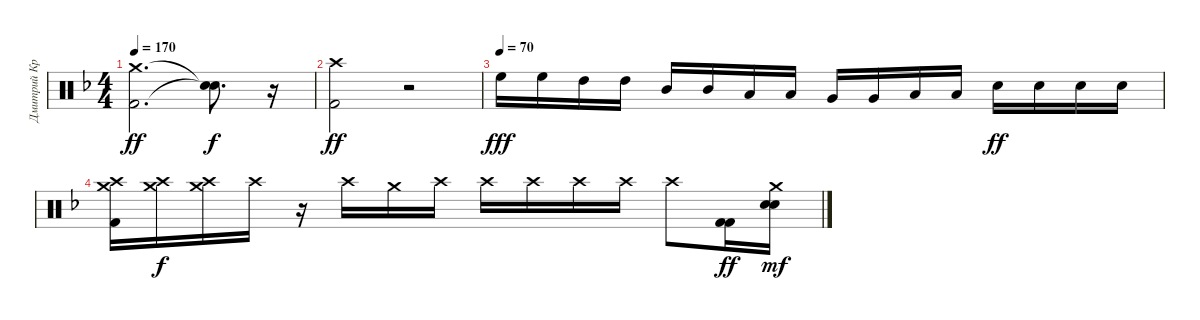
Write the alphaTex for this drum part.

\track ("Дмитрий Кривенков" "Дмитрий Кр") {instrument percussion}
\staff {score}
\articulation defaults
\ts (4 4)
\tempo 170
\clef neutral
\ks f
("Kick (hit) 2" "Crash medium (hit)").2{d dy ff} ("Snare (hit)"{t} "Snare (hit)"{t}).8{d dy f} r.16 |
("Kick (hit) 2" "Crash high (hit)").2{dy ff} r.2 |
\tempo (70)
"High Floor Tom (hit)".16{dy fff} "High Floor Tom (hit)".16 "High Tom (hit)".16 "High Tom (hit)".16 "Mid Tom (hit)".16 "Mid Tom (hit)".16 "Low Tom (hit)".16 "Low Tom (hit)".16 "Very Low Tom (hit)".16 "Very Low Tom (hit)".16 "Low Floor Tom (hit)".16 "Low Floor Tom (hit)".16 "Electric Snare (hit)".16{dy ff} "Electric Snare (hit)".16 "Electric Snare (hit)".16 "Electric Snare (hit)".16 |
("Kick (hit) 2" "Crash medium (hit)" "Crash high (hit)").16 ("Crash medium (hit)" "Crash high (hit)").16{dy f} ("Crash medium (hit)" "Crash high (hit)").16 "Crash high (hit)".16 r.16 "Crash high (hit)".16 "Crash medium (hit)".16 "Crash high (hit)".16 "Crash high (hit)".16 "Crash high (hit)".16 "Crash high (hit)".16 "Crash high (hit)".16 "Crash high (hit)".8 ("Kick (hit) 2" "Kick (hit) 2").16{dy ff} ("Electric Snare (hit)" "Crash medium (hit)" "Electric Snare (hit)").16{dy mf}
